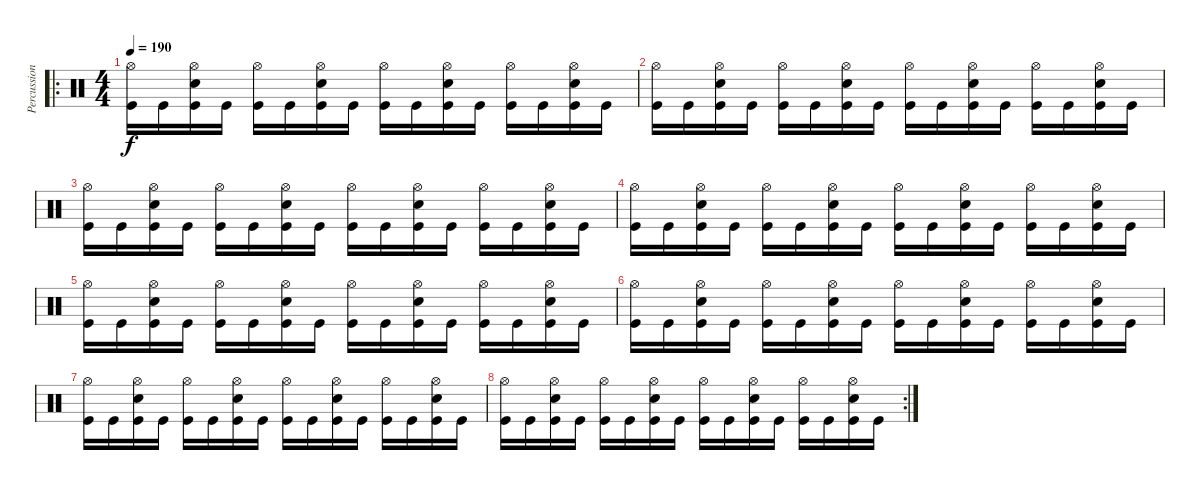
\track ("Percussion" "Percussion") {instrument percussion}
\staff {score}
\articulation defaults
\ro
\ts (4 4)
\tempo 190
\clef neutral
\ks c
("Hi-Hat (open)" "Kick (hit)").16{dy f} "Kick (hit)".16 ("Hi-Hat (open)" "Snare (hit) 2" "Kick (hit)").16 "Kick (hit)".16 ("Hi-Hat (open)" "Kick (hit)").16 "Kick (hit)".16 ("Hi-Hat (open)" "Snare (hit) 2" "Kick (hit)").16 "Kick (hit)".16 ("Hi-Hat (open)" "Kick (hit)").16 "Kick (hit)".16 ("Hi-Hat (open)" "Snare (hit) 2" "Kick (hit)").16 "Kick (hit)".16 ("Hi-Hat (open)" "Kick (hit)").16 "Kick (hit)".16 ("Hi-Hat (open)" "Snare (hit) 2" "Kick (hit)").16 "Kick (hit)".16 |
("Hi-Hat (open)" "Kick (hit)").16 "Kick (hit)".16 ("Hi-Hat (open)" "Snare (hit) 2" "Kick (hit)").16 "Kick (hit)".16 ("Hi-Hat (open)" "Kick (hit)").16 "Kick (hit)".16 ("Hi-Hat (open)" "Snare (hit) 2" "Kick (hit)").16 "Kick (hit)".16 ("Hi-Hat (open)" "Kick (hit)").16 "Kick (hit)".16 ("Hi-Hat (open)" "Snare (hit) 2" "Kick (hit)").16 "Kick (hit)".16 ("Hi-Hat (open)" "Kick (hit)").16 "Kick (hit)".16 ("Hi-Hat (open)" "Snare (hit) 2" "Kick (hit)").16 "Kick (hit)".16 |
("Hi-Hat (open)" "Kick (hit)").16 "Kick (hit)".16 ("Hi-Hat (open)" "Snare (hit) 2" "Kick (hit)").16 "Kick (hit)".16 ("Hi-Hat (open)" "Kick (hit)").16 "Kick (hit)".16 ("Hi-Hat (open)" "Snare (hit) 2" "Kick (hit)").16 "Kick (hit)".16 ("Hi-Hat (open)" "Kick (hit)").16 "Kick (hit)".16 ("Hi-Hat (open)" "Snare (hit) 2" "Kick (hit)").16 "Kick (hit)".16 ("Hi-Hat (open)" "Kick (hit)").16 "Kick (hit)".16 ("Hi-Hat (open)" "Snare (hit) 2" "Kick (hit)").16 "Kick (hit)".16 |
("Hi-Hat (open)" "Kick (hit)").16 "Kick (hit)".16 ("Hi-Hat (open)" "Snare (hit) 2" "Kick (hit)").16 "Kick (hit)".16 ("Hi-Hat (open)" "Kick (hit)").16 "Kick (hit)".16 ("Hi-Hat (open)" "Snare (hit) 2" "Kick (hit)").16 "Kick (hit)".16 ("Hi-Hat (open)" "Kick (hit)").16 "Kick (hit)".16 ("Hi-Hat (open)" "Snare (hit) 2" "Kick (hit)").16 "Kick (hit)".16 ("Hi-Hat (open)" "Kick (hit)").16 "Kick (hit)".16 ("Hi-Hat (open)" "Snare (hit) 2" "Kick (hit)").16 "Kick (hit)".16 |
("Hi-Hat (open)" "Kick (hit)").16 "Kick (hit)".16 ("Hi-Hat (open)" "Snare (hit) 2" "Kick (hit)").16 "Kick (hit)".16 ("Hi-Hat (open)" "Kick (hit)").16 "Kick (hit)".16 ("Hi-Hat (open)" "Snare (hit) 2" "Kick (hit)").16 "Kick (hit)".16 ("Hi-Hat (open)" "Kick (hit)").16 "Kick (hit)".16 ("Hi-Hat (open)" "Snare (hit) 2" "Kick (hit)").16 "Kick (hit)".16 ("Hi-Hat (open)" "Kick (hit)").16 "Kick (hit)".16 ("Hi-Hat (open)" "Snare (hit) 2" "Kick (hit)").16 "Kick (hit)".16 |
("Hi-Hat (open)" "Kick (hit)").16 "Kick (hit)".16 ("Hi-Hat (open)" "Snare (hit) 2" "Kick (hit)").16 "Kick (hit)".16 ("Hi-Hat (open)" "Kick (hit)").16 "Kick (hit)".16 ("Hi-Hat (open)" "Snare (hit) 2" "Kick (hit)").16 "Kick (hit)".16 ("Hi-Hat (open)" "Kick (hit)").16 "Kick (hit)".16 ("Hi-Hat (open)" "Snare (hit) 2" "Kick (hit)").16 "Kick (hit)".16 ("Hi-Hat (open)" "Kick (hit)").16 "Kick (hit)".16 ("Hi-Hat (open)" "Snare (hit) 2" "Kick (hit)").16 "Kick (hit)".16 |
("Hi-Hat (open)" "Kick (hit)").16 "Kick (hit)".16 ("Hi-Hat (open)" "Snare (hit) 2" "Kick (hit)").16 "Kick (hit)".16 ("Hi-Hat (open)" "Kick (hit)").16 "Kick (hit)".16 ("Hi-Hat (open)" "Snare (hit) 2" "Kick (hit)").16 "Kick (hit)".16 ("Hi-Hat (open)" "Kick (hit)").16 "Kick (hit)".16 ("Hi-Hat (open)" "Snare (hit) 2" "Kick (hit)").16 "Kick (hit)".16 ("Hi-Hat (open)" "Kick (hit)").16 "Kick (hit)".16 ("Hi-Hat (open)" "Snare (hit) 2" "Kick (hit)").16 "Kick (hit)".16 |
\rc 2
("Hi-Hat (open)" "Kick (hit)").16 "Kick (hit)".16 ("Hi-Hat (open)" "Snare (hit) 2" "Kick (hit)").16 "Kick (hit)".16 ("Hi-Hat (open)" "Kick (hit)").16 "Kick (hit)".16 ("Hi-Hat (open)" "Snare (hit) 2" "Kick (hit)").16 "Kick (hit)".16 ("Hi-Hat (open)" "Kick (hit)").16 "Kick (hit)".16 ("Hi-Hat (open)" "Snare (hit) 2" "Kick (hit)").16 "Kick (hit)".16 ("Hi-Hat (open)" "Kick (hit)").16 "Kick (hit)".16 ("Hi-Hat (open)" "Snare (hit) 2" "Kick (hit)").16 "Kick (hit)".16
